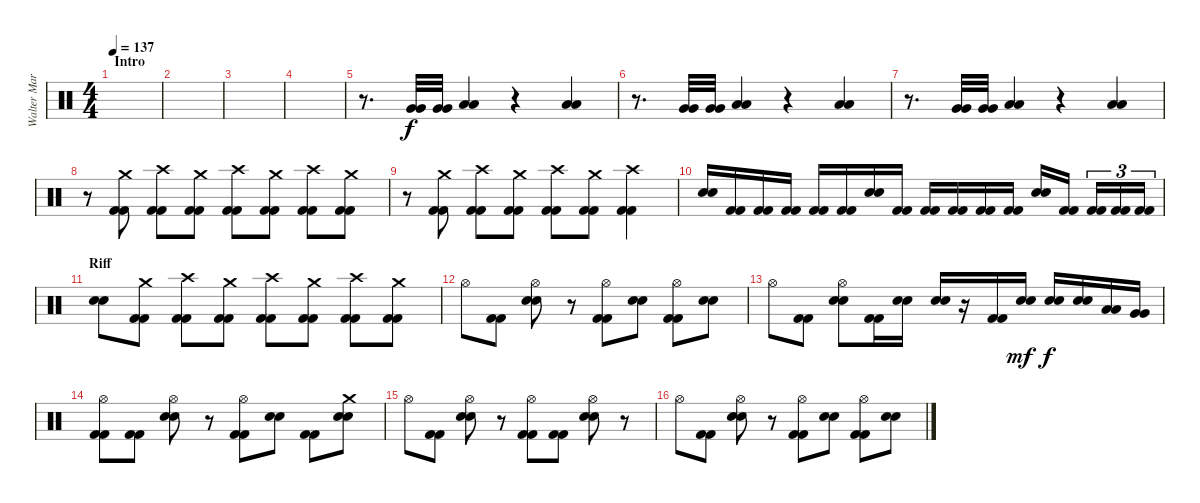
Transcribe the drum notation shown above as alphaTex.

\track ("Walter Martinez (bateria)" "Walter Mar") {instrument percussion}
\staff {score}
\articulation defaults
\ts (4 4)
\section ("" "Intro")
\tempo 137
\clef neutral
\ks c
|
|
|
|
r.8{d} ("Very Low Tom (hit)" "Very Low Tom (hit)").32 ("Very Low Tom (hit)" "Very Low Tom (hit)").32 ("Low Floor Tom (hit)" "Low Floor Tom (hit)").4 r.4 ("Low Tom (hit)" "Low Tom (hit)").4 |
r.8{d} ("Very Low Tom (hit)" "Very Low Tom (hit)").32 ("Very Low Tom (hit)" "Very Low Tom (hit)").32 ("Low Floor Tom (hit)" "Low Floor Tom (hit)").4 r.4 ("Low Tom (hit)" "Low Tom (hit)").4 |
r.8{d} ("Very Low Tom (hit)" "Very Low Tom (hit)").32 ("Very Low Tom (hit)" "Very Low Tom (hit)").32 ("Low Floor Tom (hit)" "Low Floor Tom (hit)").4 r.4 ("Low Tom (hit)" "Low Tom (hit)").4 |
r.8 ("Crash medium (hit)" "Kick (hit) 2" "Kick (hit) 2").8 ("Crash high (hit)" "Kick (hit) 2" "Kick (hit) 2").8 ("Crash medium (hit)" "Kick (hit) 2" "Kick (hit) 2").8 ("Crash high (hit)" "Kick (hit) 2" "Kick (hit) 2").8 ("Crash medium (hit)" "Kick (hit) 2" "Kick (hit) 2").8 ("Crash high (hit)" "Kick (hit) 2" "Kick (hit) 2").8 ("Crash medium (hit)" "Kick (hit) 2" "Kick (hit) 2").8 |
r.8 ("Crash medium (hit)" "Kick (hit) 2" "Kick (hit) 2").8 ("Crash high (hit)" "Kick (hit) 2" "Kick (hit) 2").8 ("Crash medium (hit)" "Kick (hit) 2" "Kick (hit) 2").8 ("Crash high (hit)" "Kick (hit) 2" "Kick (hit) 2").8 ("Crash medium (hit)" "Kick (hit) 2" "Kick (hit) 2").8 ("Crash high (hit)" "Kick (hit) 2" "Kick (hit) 2").4 |
("Snare (hit) 2" "Snare (hit) 2").16 ("Kick (hit) 2" "Kick (hit) 2").16 ("Kick (hit) 2" "Kick (hit) 2").16 ("Kick (hit) 2" "Kick (hit) 2").16 ("Kick (hit) 2" "Kick (hit) 2").16 ("Kick (hit) 2" "Kick (hit) 2").16 ("Snare (hit) 2" "Snare (hit) 2").16 ("Kick (hit) 2" "Kick (hit) 2").16 ("Kick (hit) 2" "Kick (hit) 2").16 ("Kick (hit) 2" "Kick (hit) 2").16 ("Kick (hit) 2" "Kick (hit) 2").16 ("Kick (hit) 2" "Kick (hit) 2").16 ("Snare (hit) 2" "Snare (hit) 2").16 ("Kick (hit) 2" "Kick (hit) 2").16 ("Kick (hit) 2" "Kick (hit) 2").16{tu (3 2)} ("Kick (hit) 2" "Kick (hit) 2").16{tu (3 2)} ("Kick (hit) 2" "Kick (hit) 2").16{tu (3 2)} |
\section ("" "Riff")
("Snare (hit) 2" "Snare (hit) 2").8 ("Crash medium (hit)" "Kick (hit) 2" "Kick (hit) 2").8 ("Crash high (hit)" "Kick (hit) 2" "Kick (hit) 2").8 ("Crash medium (hit)" "Kick (hit) 2" "Kick (hit) 2").8 ("Crash high (hit)" "Kick (hit) 2" "Kick (hit) 2").8 ("Crash medium (hit)" "Kick (hit) 2" "Kick (hit) 2").8 ("Crash high (hit)" "Kick (hit) 2" "Kick (hit) 2").8 ("Crash medium (hit)" "Kick (hit) 2" "Kick (hit) 2").8 |
"Hi-Hat (open)".8 ("Kick (hit) 2" "Kick (hit) 2").8 ("Hi-Hat (open)" "Snare (hit) 2" "Snare (hit) 2").8 r.8 ("Hi-Hat (open)" "Kick (hit) 2" "Kick (hit) 2").8 ("Snare (hit) 2" "Snare (hit) 2").8 ("Hi-Hat (open)" "Kick (hit) 2" "Kick (hit) 2").8 ("Snare (hit) 2" "Snare (hit) 2").8 |
"Hi-Hat (open)".8 ("Kick (hit) 2" "Kick (hit) 2").8 ("Hi-Hat (open)" "Snare (hit) 2" "Snare (hit) 2").8 ("Kick (hit) 2" "Kick (hit) 2").16 ("Snare (hit) 2" "Snare (hit) 2").16 ("Snare (hit) 2" "Snare (hit) 2").16 r.16 ("Kick (hit) 2" "Kick (hit) 2").16 ("Snare (hit) 2" "Snare (hit) 2").16{dy mf} ("Snare (hit) 2" "Snare (hit) 2").16{dy f} ("Snare (hit) 2" "Snare (hit) 2").16 ("Low Tom (hit)" "Low Tom (hit)").16 ("Very Low Tom (hit)" "Very Low Tom (hit)").16 |
("Hi-Hat (open)" "Kick (hit) 2" "Kick (hit) 2").8 ("Kick (hit) 2" "Kick (hit) 2").8 ("Hi-Hat (open)" "Snare (hit) 2" "Snare (hit) 2").8 r.8 ("Hi-Hat (open)" "Kick (hit) 2" "Kick (hit) 2").8 ("Snare (hit) 2" "Snare (hit) 2").8 ("Kick (hit) 2" "Kick (hit) 2").8 ("Crash medium (hit)" "Snare (hit) 2" "Snare (hit) 2").8 |
"Hi-Hat (open)".8 ("Kick (hit) 2" "Kick (hit) 2").8 ("Hi-Hat (open)" "Snare (hit) 2" "Snare (hit) 2").8 r.8 ("Hi-Hat (open)" "Kick (hit) 2" "Kick (hit) 2").8 ("Kick (hit) 2" "Kick (hit) 2").8 ("Hi-Hat (open)" "Snare (hit) 2" "Snare (hit) 2").8 r.8 |
"Hi-Hat (open)".8 ("Kick (hit) 2" "Kick (hit) 2").8 ("Hi-Hat (open)" "Snare (hit) 2" "Snare (hit) 2").8 r.8 ("Hi-Hat (open)" "Kick (hit) 2" "Kick (hit) 2").8 ("Snare (hit) 2" "Snare (hit) 2").8 ("Hi-Hat (open)" "Kick (hit) 2" "Kick (hit) 2").8 ("Snare (hit) 2" "Snare (hit) 2").8
